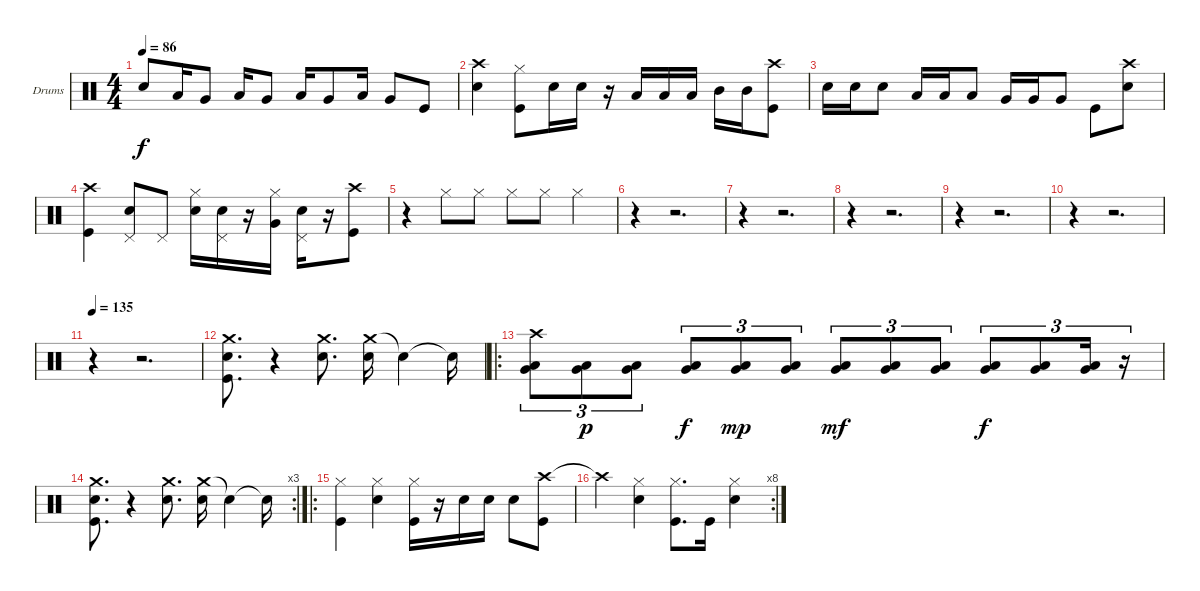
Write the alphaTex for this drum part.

\bracketExtendMode groupsimilarinstruments
\firstSystemTrackNameOrientation horizontal
\otherSystemsTrackNameOrientation horizontal
\track ("Drumkit" "Drums") {instrument percussion}
\staff {score}
\articulation defaults
\ts (4 4)
\tempo 86
\clef neutral
\ks c "Snare (hit) 2".8{dy f} "Low Tom (hit)".16 "Very Low Tom (hit)".8 "Low Tom (hit)".16 "Very Low Tom (hit)".8 "Low Tom (hit)".16 "Very Low Tom (hit)".8 "Low Tom (hit)".16 "Very Low Tom (hit)".8 "Kick (hit)".8
|
("Crash high (hit)" "Snare (hit) 2").4 ("Hi-Hat (closed)" "Kick (hit)").8 "Snare (hit) 2".16 "Snare (hit) 2".16 r.16 "Low Tom (hit)".16 "Low Tom (hit)".16 "Low Tom (hit)".16 "Mid Tom (hit)".16 "Mid Tom (hit)".16 ("Crash high (hit)" "Kick (hit)").8 |
"Snare (hit) 2".16 "Snare (hit) 2".16 "Snare (hit) 2".8 "Low Tom (hit)".16 "Low Tom (hit)".16 "Low Tom (hit)".8 "Very Low Tom (hit)".16 "Very Low Tom (hit)".16 "Very Low Tom (hit)".8 "Kick (hit)".8 ("Crash high (hit)" "Snare (hit) 2").8 |
("Crash high (hit)" "Kick (hit)").4 ("Pedal Hi-Hat (hit)" "Snare (hit) 2").8 "Pedal Hi-Hat (hit)".8 ("Hi-Hat (closed)" "Snare (hit) 2").16 ("Pedal Hi-Hat (hit)" "Snare (hit) 2").16 r.16 ("Hi-Hat (closed)" "Very Low Tom (hit)").16 ("Pedal Hi-Hat (hit)" "Snare (hit) 2").16 r.16 ("Crash high (hit)" "Kick (hit)").8 |
r.4 "Hi-Hat (closed)".8 "Hi-Hat (closed)".8 "Hi-Hat (closed)".8 "Hi-Hat (closed)".8 "Hi-Hat (closed)".4 |
r.4 r.2{d} |
r.4 r.2{d} |
r.4 r.2{d} |
r.4 r.2{d} |
r.4 r.2{d} |
\tempo 135
r.4 r.2{d} |
("Crash medium (hit)" "Kick (hit)" "Snare (hit) 2").8{d} r.4 ("Crash medium (hit)" "Snare (hit) 2").8{d} ("Crash medium (hit)" "Snare (hit) 2").16 "Snare (hit) 2"{t}.4 "Snare (hit) 2"{t}.16 |
\ro
("Crash high (hit)" "Very Low Tom (hit)" "Low Tom (hit)").8{tu (3 2)} ("Very Low Tom (hit)" "Low Tom (hit)").8{tu (3 2) dy p} ("Very Low Tom (hit)" "Low Tom (hit)").8{tu (3 2)} ("Very Low Tom (hit)" "Low Tom (hit)").8{tu (3 2) dy f} ("Very Low Tom (hit)" "Low Tom (hit)").8{tu (3 2) dy mp} ("Very Low Tom (hit)" "Low Tom (hit)").8{tu (3 2)} ("Very Low Tom (hit)" "Low Tom (hit)").8{tu (3 2) dy mf} ("Very Low Tom (hit)" "Low Tom (hit)").8{tu (3 2)} ("Very Low Tom (hit)" "Low Tom (hit)").8{tu (3 2)} ("Very Low Tom (hit)" "Low Tom (hit)").8{tu (3 2) dy f} ("Very Low Tom (hit)" "Low Tom (hit)").8{tu (3 2)} ("Very Low Tom (hit)" "Low Tom (hit)").16{tu (3 2)} r.16{tu (3 2)} |
\rc 3
("Crash medium (hit)" "Kick (hit)" "Snare (hit) 2").8{d} r.4 ("Crash medium (hit)" "Snare (hit) 2").8{d} ("Crash medium (hit)" "Snare (hit) 2").16 "Snare (hit) 2"{t}.4 "Snare (hit) 2"{t}.16 |
\ro
("Hi-Hat (closed)" "Kick (hit)").4 ("Hi-Hat (closed)" "Snare (hit) 2").4 ("Hi-Hat (closed)" "Kick (hit)").16 r.16 "Snare (hit) 2".16 "Snare (hit) 2".16 "Snare (hit) 2".8 ("Crash high (hit)" "Kick (hit)").8 |
\rc 8 "Crash high (hit)"{t}.4
("Hi-Hat (closed)" "Snare (hit) 2").4 ("Hi-Hat (closed)" "Kick (hit)").8{d} "Kick (hit)".16 ("Hi-Hat (closed)" "Snare (hit) 2").4
